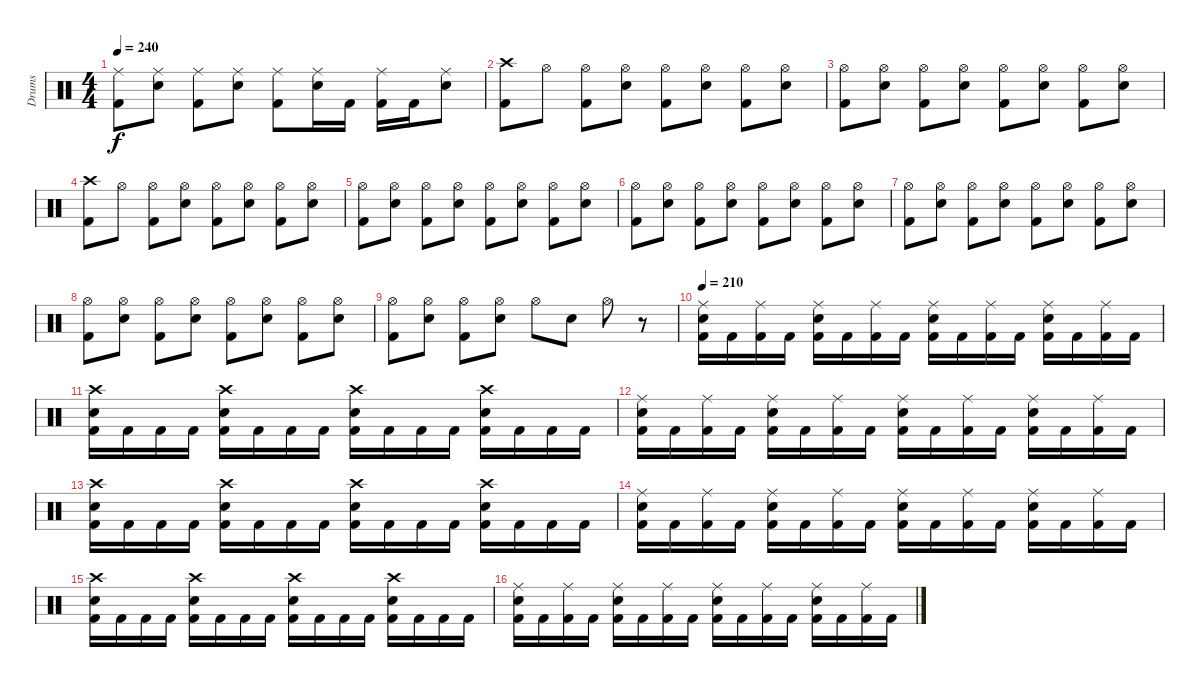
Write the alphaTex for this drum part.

\track ("Drums" "Drums") {instrument percussion}
\staff {score}
\articulation defaults
\ts (4 4)
\tempo 240
\clef neutral
\ks c
("Ride (middle)" "Kick (hit) 2").8{dy f} ("Ride (middle)" "Snare (hit) 2").8 ("Ride (middle)" "Kick (hit) 2").8 ("Ride (middle)" "Snare (hit) 2").8 ("Ride (middle)" "Kick (hit) 2").8 ("Ride (middle)" "Snare (hit) 2").16 "Kick (hit) 2".16 ("Ride (middle)" "Kick (hit) 2").16 "Kick (hit) 2".16 ("Ride (middle)" "Snare (hit) 2").8 |
("Crash high (hit)" "Kick (hit) 2").8 "Hi-Hat (open)".8 ("Hi-Hat (open)" "Kick (hit) 2").8 ("Hi-Hat (open)" "Snare (hit) 2").8 ("Hi-Hat (open)" "Kick (hit) 2").8 ("Hi-Hat (open)" "Snare (hit) 2").8 ("Hi-Hat (open)" "Kick (hit) 2").8 ("Hi-Hat (open)" "Snare (hit) 2").8 |
("Hi-Hat (open)" "Kick (hit) 2").8 ("Hi-Hat (open)" "Snare (hit) 2").8 ("Hi-Hat (open)" "Kick (hit) 2").8 ("Hi-Hat (open)" "Snare (hit) 2").8 ("Hi-Hat (open)" "Kick (hit) 2").8 ("Hi-Hat (open)" "Snare (hit) 2").8 ("Hi-Hat (open)" "Kick (hit) 2").8 ("Hi-Hat (open)" "Snare (hit) 2").8 |
("Crash high (hit)" "Kick (hit) 2").8 "Hi-Hat (open)".8 ("Hi-Hat (open)" "Kick (hit) 2").8 ("Hi-Hat (open)" "Snare (hit) 2").8 ("Hi-Hat (open)" "Kick (hit) 2").8 ("Hi-Hat (open)" "Snare (hit) 2").8 ("Hi-Hat (open)" "Kick (hit) 2").8 ("Hi-Hat (open)" "Snare (hit) 2").8 |
("Hi-Hat (open)" "Kick (hit) 2").8 ("Hi-Hat (open)" "Snare (hit) 2").8 ("Hi-Hat (open)" "Kick (hit) 2").8 ("Hi-Hat (open)" "Snare (hit) 2").8 ("Hi-Hat (open)" "Kick (hit) 2").8 ("Hi-Hat (open)" "Snare (hit) 2").8 ("Hi-Hat (open)" "Kick (hit) 2").8 ("Hi-Hat (open)" "Snare (hit) 2").8 |
("Hi-Hat (open)" "Kick (hit) 2").8 ("Hi-Hat (open)" "Snare (hit) 2").8 ("Hi-Hat (open)" "Kick (hit) 2").8 ("Hi-Hat (open)" "Snare (hit) 2").8 ("Hi-Hat (open)" "Kick (hit) 2").8 ("Hi-Hat (open)" "Snare (hit) 2").8 ("Hi-Hat (open)" "Kick (hit) 2").8 ("Hi-Hat (open)" "Snare (hit) 2").8 |
("Hi-Hat (open)" "Kick (hit) 2").8 ("Hi-Hat (open)" "Snare (hit) 2").8 ("Hi-Hat (open)" "Kick (hit) 2").8 ("Hi-Hat (open)" "Snare (hit) 2").8 ("Hi-Hat (open)" "Kick (hit) 2").8 ("Hi-Hat (open)" "Snare (hit) 2").8 ("Hi-Hat (open)" "Kick (hit) 2").8 ("Hi-Hat (open)" "Snare (hit) 2").8 |
("Hi-Hat (open)" "Kick (hit) 2").8 ("Hi-Hat (open)" "Snare (hit) 2").8 ("Hi-Hat (open)" "Kick (hit) 2").8 ("Hi-Hat (open)" "Snare (hit) 2").8 ("Hi-Hat (open)" "Kick (hit) 2").8 ("Hi-Hat (open)" "Snare (hit) 2").8 ("Hi-Hat (open)" "Kick (hit) 2").8 ("Hi-Hat (open)" "Snare (hit) 2").8 |
("Hi-Hat (open)" "Kick (hit) 2").8 ("Hi-Hat (open)" "Snare (hit) 2").8 ("Hi-Hat (open)" "Kick (hit) 2").8 ("Hi-Hat (open)" "Snare (hit) 2").8 "Hi-Hat (open)".8 "Snare (hit) 2".8 "Hi-Hat (open)".8 r.8 |
\tempo 210
("Ride (middle)" "Snare (hit) 2" "Kick (hit) 2").16 "Kick (hit) 2".16 ("Ride (middle)" "Kick (hit) 2").16 "Kick (hit) 2".16 ("Ride (middle)" "Snare (hit) 2" "Kick (hit) 2").16 "Kick (hit) 2".16 ("Ride (middle)" "Kick (hit) 2").16 "Kick (hit) 2".16 ("Ride (middle)" "Snare (hit) 2" "Kick (hit) 2").16 "Kick (hit) 2".16 ("Ride (middle)" "Kick (hit) 2").16 "Kick (hit) 2".16 ("Ride (middle)" "Snare (hit) 2" "Kick (hit) 2").16 "Kick (hit) 2".16 ("Ride (middle)" "Kick (hit) 2").16 "Kick (hit) 2".16 |
("Crash high (hit)" "Snare (hit) 2" "Kick (hit) 2").16 "Kick (hit) 2".16 "Kick (hit) 2".16 "Kick (hit) 2".16 ("Crash high (hit)" "Snare (hit) 2" "Kick (hit) 2").16 "Kick (hit) 2".16 "Kick (hit) 2".16 "Kick (hit) 2".16 ("Crash high (hit)" "Snare (hit) 2" "Kick (hit) 2").16 "Kick (hit) 2".16 "Kick (hit) 2".16 "Kick (hit) 2".16 ("Crash high (hit)" "Snare (hit) 2" "Kick (hit) 2").16 "Kick (hit) 2".16 "Kick (hit) 2".16 "Kick (hit) 2".16 |
("Ride (middle)" "Snare (hit) 2" "Kick (hit) 2").16 "Kick (hit) 2".16 ("Ride (middle)" "Kick (hit) 2").16 "Kick (hit) 2".16 ("Ride (middle)" "Snare (hit) 2" "Kick (hit) 2").16 "Kick (hit) 2".16 ("Ride (middle)" "Kick (hit) 2").16 "Kick (hit) 2".16 ("Ride (middle)" "Snare (hit) 2" "Kick (hit) 2").16 "Kick (hit) 2".16 ("Ride (middle)" "Kick (hit) 2").16 "Kick (hit) 2".16 ("Ride (middle)" "Snare (hit) 2" "Kick (hit) 2").16 "Kick (hit) 2".16 ("Ride (middle)" "Kick (hit) 2").16 "Kick (hit) 2".16 |
("Crash high (hit)" "Snare (hit) 2" "Kick (hit) 2").16 "Kick (hit) 2".16 "Kick (hit) 2".16 "Kick (hit) 2".16 ("Crash high (hit)" "Snare (hit) 2" "Kick (hit) 2").16 "Kick (hit) 2".16 "Kick (hit) 2".16 "Kick (hit) 2".16 ("Crash high (hit)" "Snare (hit) 2" "Kick (hit) 2").16 "Kick (hit) 2".16 "Kick (hit) 2".16 "Kick (hit) 2".16 ("Crash high (hit)" "Snare (hit) 2" "Kick (hit) 2").16 "Kick (hit) 2".16 "Kick (hit) 2".16 "Kick (hit) 2".16 |
("Ride (middle)" "Snare (hit) 2" "Kick (hit) 2").16 "Kick (hit) 2".16 ("Ride (middle)" "Kick (hit) 2").16 "Kick (hit) 2".16 ("Ride (middle)" "Snare (hit) 2" "Kick (hit) 2").16 "Kick (hit) 2".16 ("Ride (middle)" "Kick (hit) 2").16 "Kick (hit) 2".16 ("Ride (middle)" "Snare (hit) 2" "Kick (hit) 2").16 "Kick (hit) 2".16 ("Ride (middle)" "Kick (hit) 2").16 "Kick (hit) 2".16 ("Ride (middle)" "Snare (hit) 2" "Kick (hit) 2").16 "Kick (hit) 2".16 ("Ride (middle)" "Kick (hit) 2").16 "Kick (hit) 2".16 |
("Crash high (hit)" "Snare (hit) 2" "Kick (hit) 2").16 "Kick (hit) 2".16 "Kick (hit) 2".16 "Kick (hit) 2".16 ("Crash high (hit)" "Snare (hit) 2" "Kick (hit) 2").16 "Kick (hit) 2".16 "Kick (hit) 2".16 "Kick (hit) 2".16 ("Crash high (hit)" "Snare (hit) 2" "Kick (hit) 2").16 "Kick (hit) 2".16 "Kick (hit) 2".16 "Kick (hit) 2".16 ("Crash high (hit)" "Snare (hit) 2" "Kick (hit) 2").16 "Kick (hit) 2".16 "Kick (hit) 2".16 "Kick (hit) 2".16 |
("Ride (middle)" "Snare (hit) 2" "Kick (hit) 2").16 "Kick (hit) 2".16 ("Ride (middle)" "Kick (hit) 2").16 "Kick (hit) 2".16 ("Ride (middle)" "Snare (hit) 2" "Kick (hit) 2").16 "Kick (hit) 2".16 ("Ride (middle)" "Kick (hit) 2").16 "Kick (hit) 2".16 ("Ride (middle)" "Snare (hit) 2" "Kick (hit) 2").16 "Kick (hit) 2".16 ("Ride (middle)" "Kick (hit) 2").16 "Kick (hit) 2".16 ("Ride (middle)" "Snare (hit) 2" "Kick (hit) 2").16 "Kick (hit) 2".16 ("Ride (middle)" "Kick (hit) 2").16 "Kick (hit) 2".16
